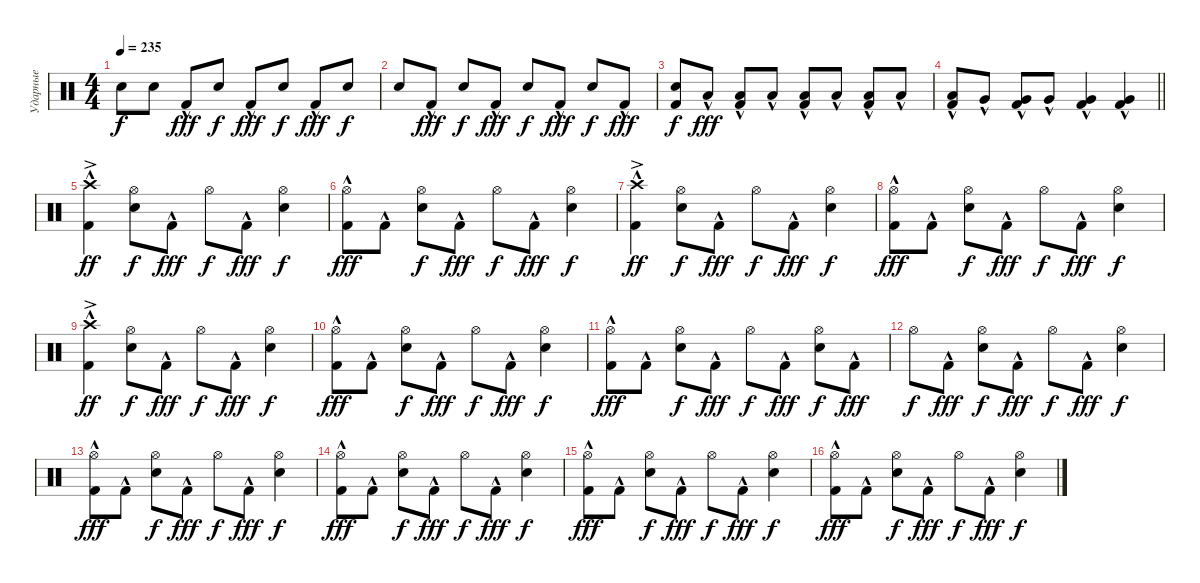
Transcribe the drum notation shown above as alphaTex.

\track ("Ударные" "Ударные") {instrument percussion}
\staff {score}
\articulation defaults
\ts (4 4)
\tempo 235
\clef neutral
\ks c "Snare (hit) 2".8{dy f} "Snare (hit) 2".8 "Kick (hit) 2"{hac}.8{dy fff} "Snare (hit) 2".8{dy f} "Kick (hit) 2"{hac}.8{dy fff} "Snare (hit) 2".8{dy f} "Kick (hit) 2"{hac}.8{dy fff} "Snare (hit) 2".8{dy f}
|
"Snare (hit) 2".8 "Kick (hit) 2"{hac}.8{dy fff} "Snare (hit) 2".8{dy f} "Kick (hit) 2"{hac}.8{dy fff} "Snare (hit) 2".8{dy f} "Kick (hit) 2"{hac}.8{dy fff} "Snare (hit) 2".8{dy f} "Kick (hit) 2"{hac}.8{dy fff} |
("Kick (hit) 2" "Snare (hit) 2").8{dy f} "Low Tom (hit)"{hac}.8{dy fff} ("Kick (hit) 2" "Low Tom (hit)"{hac}).8 "Low Tom (hit)"{hac}.8 ("Kick (hit) 2" "Low Tom (hit)"{hac}).8 "Low Tom (hit)"{hac}.8 ("Kick (hit) 2" "Low Tom (hit)"{hac}).8 "Low Tom (hit)"{hac}.8 |
\barLineRight lightlight
("Kick (hit) 2" "Low Tom (hit)"{hac}).8 "Very Low Tom (hit)"{hac}.8 ("Kick (hit) 2" "Very Low Tom (hit)"{hac}).8 "Very Low Tom (hit)"{hac}.8 ("Kick (hit) 2" "Very Low Tom (hit)"{hac}).4 ("Kick (hit) 2" "Very Low Tom (hit)"{hac}).4 |
("Kick (hit) 2"{hac} "Crash high (hit)"{ac}).4{dy ff} ("Snare (hit) 2" "Hi-Hat (open)").8{dy f} "Kick (hit) 2"{hac}.8{dy fff} "Hi-Hat (open)".8{dy f} "Kick (hit) 2"{hac}.8{dy fff} ("Snare (hit) 2" "Hi-Hat (open)").4{dy f} |
("Kick (hit) 2"{hac} "Hi-Hat (open)").8{dy fff} "Kick (hit) 2"{hac}.8 ("Snare (hit) 2" "Hi-Hat (open)").8{dy f} "Kick (hit) 2"{hac}.8{dy fff} "Hi-Hat (open)".8{dy f} "Kick (hit) 2"{hac}.8{dy fff} ("Snare (hit) 2" "Hi-Hat (open)").4{dy f} |
("Kick (hit) 2"{hac} "Crash high (hit)"{ac}).4{dy ff} ("Snare (hit) 2" "Hi-Hat (open)").8{dy f} "Kick (hit) 2"{hac}.8{dy fff} "Hi-Hat (open)".8{dy f} "Kick (hit) 2"{hac}.8{dy fff} ("Snare (hit) 2" "Hi-Hat (open)").4{dy f} |
("Kick (hit) 2"{hac} "Hi-Hat (open)").8{dy fff} "Kick (hit) 2"{hac}.8 ("Snare (hit) 2" "Hi-Hat (open)").8{dy f} "Kick (hit) 2"{hac}.8{dy fff} "Hi-Hat (open)".8{dy f} "Kick (hit) 2"{hac}.8{dy fff} ("Snare (hit) 2" "Hi-Hat (open)").4{dy f} |
("Kick (hit) 2"{hac} "Crash high (hit)"{ac}).4{dy ff} ("Snare (hit) 2" "Hi-Hat (open)").8{dy f} "Kick (hit) 2"{hac}.8{dy fff} "Hi-Hat (open)".8{dy f} "Kick (hit) 2"{hac}.8{dy fff} ("Snare (hit) 2" "Hi-Hat (open)").4{dy f} |
("Kick (hit) 2"{hac} "Hi-Hat (open)").8{dy fff} "Kick (hit) 2"{hac}.8 ("Snare (hit) 2" "Hi-Hat (open)").8{dy f} "Kick (hit) 2"{hac}.8{dy fff} "Hi-Hat (open)".8{dy f} "Kick (hit) 2"{hac}.8{dy fff} ("Snare (hit) 2" "Hi-Hat (open)").4{dy f} |
("Kick (hit) 2"{hac} "Hi-Hat (open)").8{dy fff} "Kick (hit) 2"{hac}.8 ("Snare (hit) 2" "Hi-Hat (open)").8{dy f} "Kick (hit) 2"{hac}.8{dy fff} "Hi-Hat (open)".8{dy f} "Kick (hit) 2"{hac}.8{dy fff} ("Snare (hit) 2" "Hi-Hat (open)").8{dy f} "Kick (hit) 2"{hac}.8{dy fff} |
"Hi-Hat (open)".8{dy f} "Kick (hit) 2"{hac}.8{dy fff} ("Snare (hit) 2" "Hi-Hat (open)").8{dy f} "Kick (hit) 2"{hac}.8{dy fff} "Hi-Hat (open)".8{dy f} "Kick (hit) 2"{hac}.8{dy fff} ("Snare (hit) 2" "Hi-Hat (open)").4{dy f} |
("Kick (hit) 2"{hac} "Hi-Hat (open)").8{dy fff} "Kick (hit) 2"{hac}.8 ("Snare (hit) 2" "Hi-Hat (open)").8{dy f} "Kick (hit) 2"{hac}.8{dy fff} "Hi-Hat (open)".8{dy f} "Kick (hit) 2"{hac}.8{dy fff} ("Snare (hit) 2" "Hi-Hat (open)").4{dy f} |
("Kick (hit) 2"{hac} "Hi-Hat (open)").8{dy fff} "Kick (hit) 2"{hac}.8 ("Snare (hit) 2" "Hi-Hat (open)").8{dy f} "Kick (hit) 2"{hac}.8{dy fff} "Hi-Hat (open)".8{dy f} "Kick (hit) 2"{hac}.8{dy fff} ("Snare (hit) 2" "Hi-Hat (open)").4{dy f} |
("Kick (hit) 2"{hac} "Hi-Hat (open)").8{dy fff} "Kick (hit) 2"{hac}.8 ("Snare (hit) 2" "Hi-Hat (open)").8{dy f} "Kick (hit) 2"{hac}.8{dy fff} "Hi-Hat (open)".8{dy f} "Kick (hit) 2"{hac}.8{dy fff} ("Snare (hit) 2" "Hi-Hat (open)").4{dy f} |
("Kick (hit) 2"{hac} "Hi-Hat (open)").8{dy fff} "Kick (hit) 2"{hac}.8 ("Snare (hit) 2" "Hi-Hat (open)").8{dy f} "Kick (hit) 2"{hac}.8{dy fff} "Hi-Hat (open)".8{dy f} "Kick (hit) 2"{hac}.8{dy fff} ("Snare (hit) 2" "Hi-Hat (open)").4{dy f}
